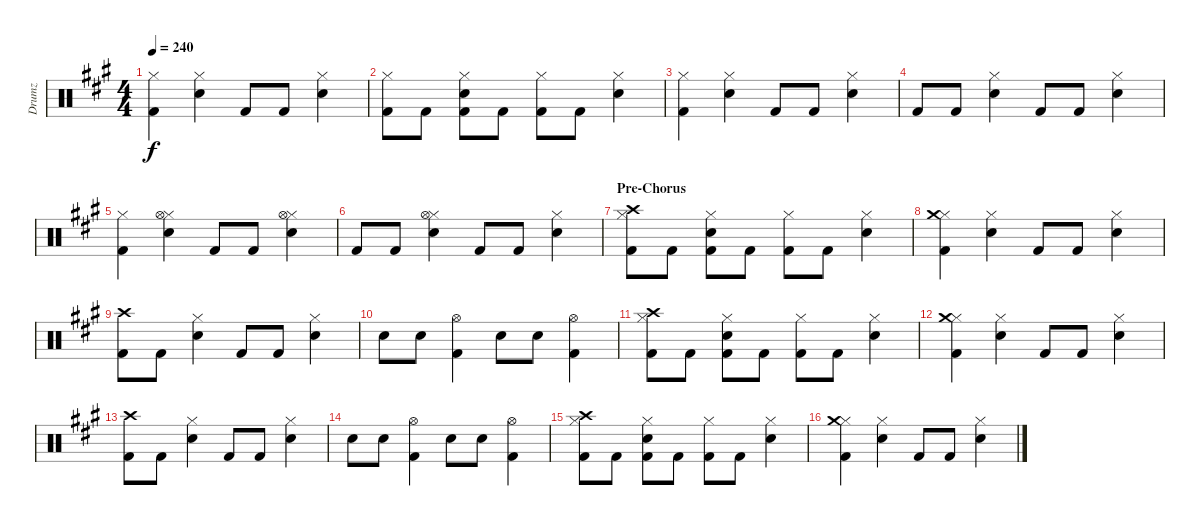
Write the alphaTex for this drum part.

\track ("Drumz" "Drumz") {instrument percussion}
\staff {score}
\articulation defaults
\ts (4 4)
\tempo 240
\clef neutral
\ks a
("Hi-Hat (closed)" "Kick (hit) 2").4{dy f} ("Hi-Hat (closed)" "Electric Snare (hit)").4 "Kick (hit) 2".8 "Kick (hit) 2".8 ("Electric Snare (hit)" "Hi-Hat (closed)").4 |
("Hi-Hat (closed)" "Kick (hit) 2").8 "Kick (hit) 2".8 ("Hi-Hat (closed)" "Electric Snare (hit)" "Kick (hit) 2").8 "Kick (hit) 2".8 ("Hi-Hat (closed)" "Kick (hit) 2").8 "Kick (hit) 2".8 ("Hi-Hat (closed)" "Electric Snare (hit)").4 |
("Hi-Hat (closed)" "Kick (hit) 2").4 ("Hi-Hat (closed)" "Electric Snare (hit)").4 "Kick (hit) 2".8 "Kick (hit) 2".8 ("Electric Snare (hit)" "Hi-Hat (closed)").4 |
"Kick (hit) 2".8 "Kick (hit) 2".8 ("Hi-Hat (closed)" "Electric Snare (hit)").4 "Kick (hit) 2".8 "Kick (hit) 2".8 ("Electric Snare (hit)" "Hi-Hat (closed)").4 |
("Hi-Hat (closed)" "Kick (hit) 2").4 ("Hi-Hat (closed)" "Hi-Hat (open)" "Electric Snare (hit)").4 "Kick (hit) 2".8 "Kick (hit) 2".8 ("Electric Snare (hit)" "Hi-Hat (closed)" "Hi-Hat (open)").4 |
"Kick (hit) 2".8 "Kick (hit) 2".8 ("Hi-Hat (closed)" "Electric Snare (hit)" "Hi-Hat (open)").4 "Kick (hit) 2".8 "Kick (hit) 2".8 ("Electric Snare (hit)" "Hi-Hat (closed)").4 |
\section ("" "Pre-Chorus")
("Hi-Hat (closed)" "Crash high (hit)" "Kick (hit) 2").8 "Kick (hit) 2".8 ("Hi-Hat (closed)" "Electric Snare (hit)" "Kick (hit) 2").8 "Kick (hit) 2".8 ("Hi-Hat (closed)" "Kick (hit) 2").8 "Kick (hit) 2".8 ("Hi-Hat (closed)" "Electric Snare (hit)").4 |
("Hi-Hat (closed)" "Crash medium (hit)" "Kick (hit) 2").4 ("Hi-Hat (closed)" "Electric Snare (hit)").4 "Kick (hit) 2".8 "Kick (hit) 2".8 ("Electric Snare (hit)" "Hi-Hat (closed)").4 |
("Kick (hit) 2" "Crash high (hit)").8 "Kick (hit) 2".8 ("Hi-Hat (closed)" "Electric Snare (hit)").4 "Kick (hit) 2".8 "Kick (hit) 2".8 ("Electric Snare (hit)" "Hi-Hat (closed)").4 |
"Electric Snare (hit)".8 "Electric Snare (hit)".8 ("Hi-Hat (open)" "Kick (hit) 2").4 "Electric Snare (hit)".8 "Electric Snare (hit)".8 ("Hi-Hat (open)" "Kick (hit) 2").4 |
("Hi-Hat (closed)" "Crash high (hit)" "Kick (hit) 2").8 "Kick (hit) 2".8 ("Hi-Hat (closed)" "Electric Snare (hit)" "Kick (hit) 2").8 "Kick (hit) 2".8 ("Hi-Hat (closed)" "Kick (hit) 2").8 "Kick (hit) 2".8 ("Hi-Hat (closed)" "Electric Snare (hit)").4 |
("Hi-Hat (closed)" "Crash medium (hit)" "Kick (hit) 2").4 ("Hi-Hat (closed)" "Electric Snare (hit)").4 "Kick (hit) 2".8 "Kick (hit) 2".8 ("Electric Snare (hit)" "Hi-Hat (closed)").4 |
("Kick (hit) 2" "Crash high (hit)").8 "Kick (hit) 2".8 ("Hi-Hat (closed)" "Electric Snare (hit)").4 "Kick (hit) 2".8 "Kick (hit) 2".8 ("Electric Snare (hit)" "Hi-Hat (closed)").4 |
"Electric Snare (hit)".8 "Electric Snare (hit)".8 ("Hi-Hat (open)" "Kick (hit) 2").4 "Electric Snare (hit)".8 "Electric Snare (hit)".8 ("Hi-Hat (open)" "Kick (hit) 2").4 |
("Hi-Hat (closed)" "Crash high (hit)" "Kick (hit) 2").8 "Kick (hit) 2".8 ("Hi-Hat (closed)" "Electric Snare (hit)" "Kick (hit) 2").8 "Kick (hit) 2".8 ("Hi-Hat (closed)" "Kick (hit) 2").8 "Kick (hit) 2".8 ("Hi-Hat (closed)" "Electric Snare (hit)").4 |
("Hi-Hat (closed)" "Crash medium (hit)" "Kick (hit) 2").4 ("Hi-Hat (closed)" "Electric Snare (hit)").4 "Kick (hit) 2".8 "Kick (hit) 2".8 ("Electric Snare (hit)" "Hi-Hat (closed)").4
